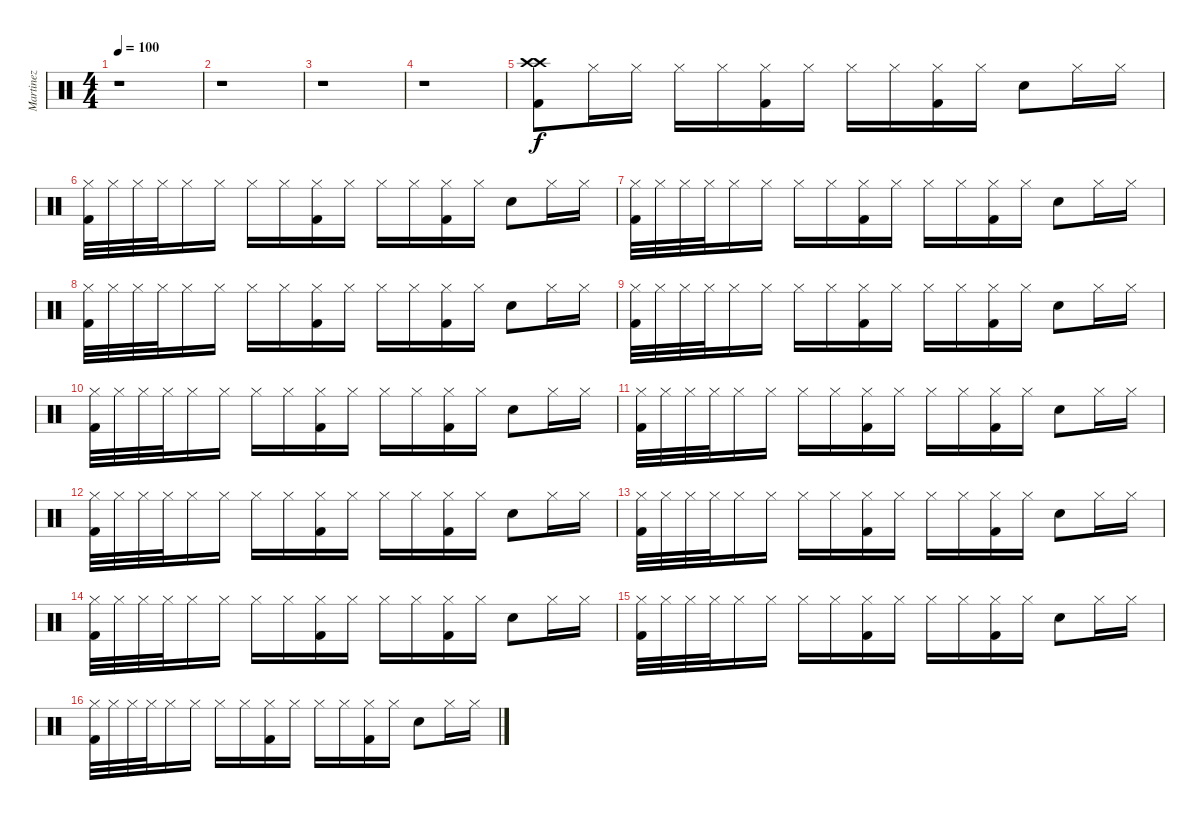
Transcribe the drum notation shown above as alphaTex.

\track ("Martinez" "Martinez") {instrument percussion}
\staff {score}
\articulation defaults
\ts (4 4)
\tempo 100
\clef neutral
\ks c
r.1{dy f} |
r.1 |
r.1 |
r.1 |
("Crash high (hit)" "Crash high (hit)" "Kick (hit) 2").8 "Hi-Hat (closed)".16 "Hi-Hat (closed)".16 "Hi-Hat (closed)".16 "Hi-Hat (closed)".16 ("Hi-Hat (closed)" "Kick (hit) 2").16 "Hi-Hat (closed)".16 "Hi-Hat (closed)".16 "Hi-Hat (closed)".16 ("Hi-Hat (closed)" "Kick (hit) 2").16 "Hi-Hat (closed)".16 "Snare (hit) 2".8 "Hi-Hat (closed)".16 "Hi-Hat (closed)".16 |
("Hi-Hat (closed)" "Kick (hit) 2").32 "Hi-Hat (closed)".32 "Hi-Hat (closed)".32 "Hi-Hat (closed)".32 "Hi-Hat (closed)".16 "Hi-Hat (closed)".16 "Hi-Hat (closed)".16 "Hi-Hat (closed)".16 ("Hi-Hat (closed)" "Kick (hit) 2").16 "Hi-Hat (closed)".16 "Hi-Hat (closed)".16 "Hi-Hat (closed)".16 ("Hi-Hat (closed)" "Kick (hit) 2").16 "Hi-Hat (closed)".16 "Snare (hit) 2".8 "Hi-Hat (closed)".16 "Hi-Hat (closed)".16 |
("Hi-Hat (closed)" "Kick (hit) 2").32 "Hi-Hat (closed)".32 "Hi-Hat (closed)".32 "Hi-Hat (closed)".32 "Hi-Hat (closed)".16 "Hi-Hat (closed)".16 "Hi-Hat (closed)".16 "Hi-Hat (closed)".16 ("Hi-Hat (closed)" "Kick (hit) 2").16 "Hi-Hat (closed)".16 "Hi-Hat (closed)".16 "Hi-Hat (closed)".16 ("Hi-Hat (closed)" "Kick (hit) 2").16 "Hi-Hat (closed)".16 "Snare (hit) 2".8 "Hi-Hat (closed)".16 "Hi-Hat (closed)".16 |
("Hi-Hat (closed)" "Kick (hit) 2").32 "Hi-Hat (closed)".32 "Hi-Hat (closed)".32 "Hi-Hat (closed)".32 "Hi-Hat (closed)".16 "Hi-Hat (closed)".16 "Hi-Hat (closed)".16 "Hi-Hat (closed)".16 ("Hi-Hat (closed)" "Kick (hit) 2").16 "Hi-Hat (closed)".16 "Hi-Hat (closed)".16 "Hi-Hat (closed)".16 ("Hi-Hat (closed)" "Kick (hit) 2").16 "Hi-Hat (closed)".16 "Snare (hit) 2".8 "Hi-Hat (closed)".16 "Hi-Hat (closed)".16 |
("Hi-Hat (closed)" "Kick (hit) 2").32 "Hi-Hat (closed)".32 "Hi-Hat (closed)".32 "Hi-Hat (closed)".32 "Hi-Hat (closed)".16 "Hi-Hat (closed)".16 "Hi-Hat (closed)".16 "Hi-Hat (closed)".16 ("Hi-Hat (closed)" "Kick (hit) 2").16 "Hi-Hat (closed)".16 "Hi-Hat (closed)".16 "Hi-Hat (closed)".16 ("Hi-Hat (closed)" "Kick (hit) 2").16 "Hi-Hat (closed)".16 "Snare (hit) 2".8 "Hi-Hat (closed)".16 "Hi-Hat (closed)".16 |
("Hi-Hat (closed)" "Kick (hit) 2").32 "Hi-Hat (closed)".32 "Hi-Hat (closed)".32 "Hi-Hat (closed)".32 "Hi-Hat (closed)".16 "Hi-Hat (closed)".16 "Hi-Hat (closed)".16 "Hi-Hat (closed)".16 ("Hi-Hat (closed)" "Kick (hit) 2").16 "Hi-Hat (closed)".16 "Hi-Hat (closed)".16 "Hi-Hat (closed)".16 ("Hi-Hat (closed)" "Kick (hit) 2").16 "Hi-Hat (closed)".16 "Snare (hit) 2".8 "Hi-Hat (closed)".16 "Hi-Hat (closed)".16 |
("Hi-Hat (closed)" "Kick (hit) 2").32 "Hi-Hat (closed)".32 "Hi-Hat (closed)".32 "Hi-Hat (closed)".32 "Hi-Hat (closed)".16 "Hi-Hat (closed)".16 "Hi-Hat (closed)".16 "Hi-Hat (closed)".16 ("Hi-Hat (closed)" "Kick (hit) 2").16 "Hi-Hat (closed)".16 "Hi-Hat (closed)".16 "Hi-Hat (closed)".16 ("Hi-Hat (closed)" "Kick (hit) 2").16 "Hi-Hat (closed)".16 "Snare (hit) 2".8 "Hi-Hat (closed)".16 "Hi-Hat (closed)".16 |
("Hi-Hat (closed)" "Kick (hit) 2").32 "Hi-Hat (closed)".32 "Hi-Hat (closed)".32 "Hi-Hat (closed)".32 "Hi-Hat (closed)".16 "Hi-Hat (closed)".16 "Hi-Hat (closed)".16 "Hi-Hat (closed)".16 ("Hi-Hat (closed)" "Kick (hit) 2").16 "Hi-Hat (closed)".16 "Hi-Hat (closed)".16 "Hi-Hat (closed)".16 ("Hi-Hat (closed)" "Kick (hit) 2").16 "Hi-Hat (closed)".16 "Snare (hit) 2".8 "Hi-Hat (closed)".16 "Hi-Hat (closed)".16 |
("Hi-Hat (closed)" "Kick (hit) 2").32 "Hi-Hat (closed)".32 "Hi-Hat (closed)".32 "Hi-Hat (closed)".32 "Hi-Hat (closed)".16 "Hi-Hat (closed)".16 "Hi-Hat (closed)".16 "Hi-Hat (closed)".16 ("Hi-Hat (closed)" "Kick (hit) 2").16 "Hi-Hat (closed)".16 "Hi-Hat (closed)".16 "Hi-Hat (closed)".16 ("Hi-Hat (closed)" "Kick (hit) 2").16 "Hi-Hat (closed)".16 "Snare (hit) 2".8 "Hi-Hat (closed)".16 "Hi-Hat (closed)".16 |
("Hi-Hat (closed)" "Kick (hit) 2").32 "Hi-Hat (closed)".32 "Hi-Hat (closed)".32 "Hi-Hat (closed)".32 "Hi-Hat (closed)".16 "Hi-Hat (closed)".16 "Hi-Hat (closed)".16 "Hi-Hat (closed)".16 ("Hi-Hat (closed)" "Kick (hit) 2").16 "Hi-Hat (closed)".16 "Hi-Hat (closed)".16 "Hi-Hat (closed)".16 ("Hi-Hat (closed)" "Kick (hit) 2").16 "Hi-Hat (closed)".16 "Snare (hit) 2".8 "Hi-Hat (closed)".16 "Hi-Hat (closed)".16 |
("Hi-Hat (closed)" "Kick (hit) 2").32 "Hi-Hat (closed)".32 "Hi-Hat (closed)".32 "Hi-Hat (closed)".32 "Hi-Hat (closed)".16 "Hi-Hat (closed)".16 "Hi-Hat (closed)".16 "Hi-Hat (closed)".16 ("Hi-Hat (closed)" "Kick (hit) 2").16 "Hi-Hat (closed)".16 "Hi-Hat (closed)".16 "Hi-Hat (closed)".16 ("Hi-Hat (closed)" "Kick (hit) 2").16 "Hi-Hat (closed)".16 "Snare (hit) 2".8 "Hi-Hat (closed)".16 "Hi-Hat (closed)".16 |
("Hi-Hat (closed)" "Kick (hit) 2").32 "Hi-Hat (closed)".32 "Hi-Hat (closed)".32 "Hi-Hat (closed)".32 "Hi-Hat (closed)".16 "Hi-Hat (closed)".16 "Hi-Hat (closed)".16 "Hi-Hat (closed)".16 ("Hi-Hat (closed)" "Kick (hit) 2").16 "Hi-Hat (closed)".16 "Hi-Hat (closed)".16 "Hi-Hat (closed)".16 ("Hi-Hat (closed)" "Kick (hit) 2").16 "Hi-Hat (closed)".16 "Snare (hit) 2".8 "Hi-Hat (closed)".16 "Hi-Hat (closed)".16
